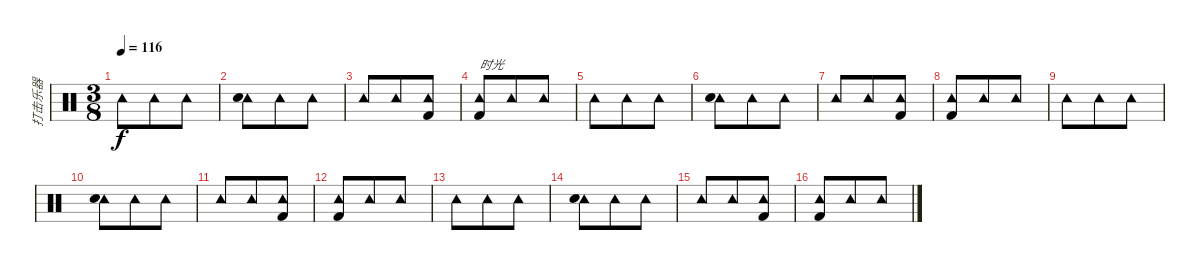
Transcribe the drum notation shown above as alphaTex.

\track ("打击乐器" "打击乐器") {instrument percussion}
\staff {score}
\articulation defaults
\ts (3 8)
\tempo 116
\clef neutral
\ks c "Tambourine (hit)".8{dy f} "Tambourine (hit)".8 "Tambourine (hit)".8
|
("Tambourine (hit)" "Snare (hit) 2").8 "Tambourine (hit)".8 "Tambourine (hit)".8 |
"Tambourine (hit)".8 "Tambourine (hit)".8 ("Tambourine (hit)" "Kick (hit) 2").8 |
("Tambourine (hit)" "Kick (hit) 2").8{txt "时光"} "Tambourine (hit)".8 "Tambourine (hit)".8 |
"Tambourine (hit)".8 "Tambourine (hit)".8 "Tambourine (hit)".8 |
("Tambourine (hit)" "Snare (hit) 2").8 "Tambourine (hit)".8 "Tambourine (hit)".8 |
"Tambourine (hit)".8 "Tambourine (hit)".8 ("Tambourine (hit)" "Kick (hit) 2").8 |
("Tambourine (hit)" "Kick (hit) 2").8 "Tambourine (hit)".8 "Tambourine (hit)".8 |
"Tambourine (hit)".8 "Tambourine (hit)".8 "Tambourine (hit)".8 |
("Tambourine (hit)" "Snare (hit) 2").8 "Tambourine (hit)".8 "Tambourine (hit)".8 |
"Tambourine (hit)".8 "Tambourine (hit)".8 ("Tambourine (hit)" "Kick (hit) 2").8 |
("Tambourine (hit)" "Kick (hit) 2").8 "Tambourine (hit)".8 "Tambourine (hit)".8 |
"Tambourine (hit)".8 "Tambourine (hit)".8 "Tambourine (hit)".8 |
("Tambourine (hit)" "Snare (hit) 2").8 "Tambourine (hit)".8 "Tambourine (hit)".8 |
"Tambourine (hit)".8 "Tambourine (hit)".8 ("Tambourine (hit)" "Kick (hit) 2").8 |
("Tambourine (hit)" "Kick (hit) 2").8 "Tambourine (hit)".8 "Tambourine (hit)".8
